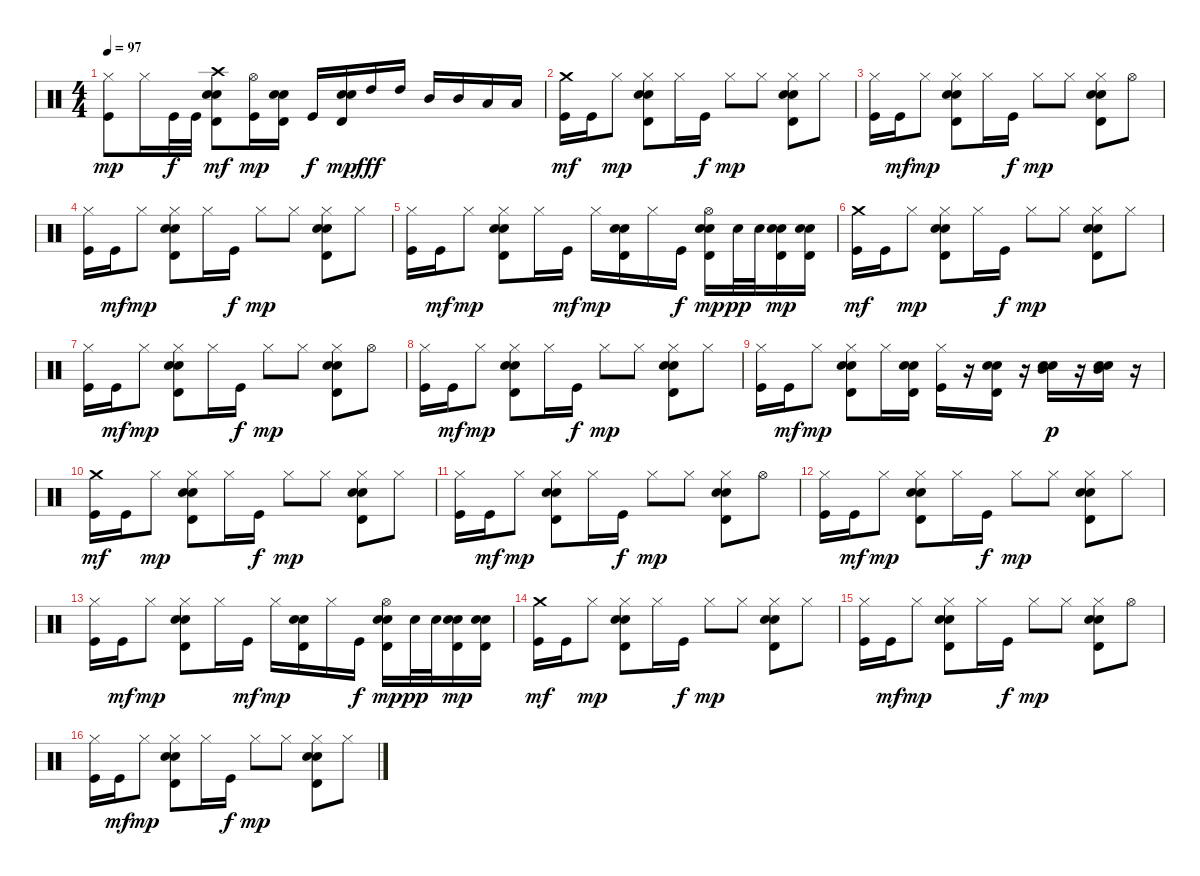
\track "" {instrument percussion}
\staff {score}
\articulation defaults
\ts (4 4)
\tempo 97
\clef neutral
\ks c
("Kick (hit)" "Hi-Hat (closed)").8{dy mp} "Hi-Hat (closed)".16 "Kick (hit)".32{dy f} "Kick (hit)".32 ("Snare (hit) 2" "Electric Snare (hit)" "Timbale high (hit)" "Crash high (hit)").8{dy mf} ("Kick (hit)" "Hi-Hat (open)").16{dy mp} ("Snare (hit) 2" "Electric Snare (hit)" "Timbale high (hit)").16 "Kick (hit)".16{dy f} ("Snare (hit) 2" "Electric Snare (hit)" "Timbale high (hit)").16{dy mp} "High Tom (hit)".16{dy fff} "High Tom (hit)".16 "Mid Tom (hit)".16 "Mid Tom (hit)".16 "Low Tom (hit)".16 "Low Tom (hit)".16 |
\section ("" "")
("Kick (hit)" "Crash medium (hit)").16{dy mf} "Kick (hit)".16 "Hi-Hat (closed)".8{dy mp} ("Snare (hit) 2" "Electric Snare (hit)" "Timbale high (hit)" "Hi-Hat (closed)").8 "Hi-Hat (closed)".16 "Kick (hit)".16{dy f} "Hi-Hat (closed)".8{dy mp} "Hi-Hat (closed)".8 ("Snare (hit) 2" "Electric Snare (hit)" "Timbale high (hit)" "Hi-Hat (closed)").8 "Hi-Hat (closed)".8 |
("Kick (hit)" "Hi-Hat (closed)").16 "Kick (hit)".16{dy mf} "Hi-Hat (closed)".8{dy mp} ("Snare (hit) 2" "Electric Snare (hit)" "Timbale high (hit)" "Hi-Hat (closed)").8 "Hi-Hat (closed)".16 "Kick (hit)".16{dy f} "Hi-Hat (closed)".8{dy mp} "Hi-Hat (closed)".8 ("Snare (hit) 2" "Electric Snare (hit)" "Timbale high (hit)" "Hi-Hat (closed)").8 "Hi-Hat (open)".8 |
("Kick (hit)" "Hi-Hat (closed)").16 "Kick (hit)".16{dy mf} "Hi-Hat (closed)".8{dy mp} ("Snare (hit) 2" "Electric Snare (hit)" "Timbale high (hit)" "Hi-Hat (closed)").8 "Hi-Hat (closed)".16 "Kick (hit)".16{dy f} "Hi-Hat (closed)".8{dy mp} "Hi-Hat (closed)".8 ("Snare (hit) 2" "Electric Snare (hit)" "Timbale high (hit)" "Hi-Hat (closed)").8 "Hi-Hat (closed)".8 |
("Kick (hit)" "Hi-Hat (closed)").16 "Kick (hit)".16{dy mf} "Hi-Hat (closed)".8{dy mp} ("Snare (hit) 2" "Electric Snare (hit)" "Timbale high (hit)" "Hi-Hat (closed)").8 "Hi-Hat (closed)".16 "Kick (hit)".16{dy mf} "Hi-Hat (closed)".16{dy mp} ("Snare (hit) 2" "Electric Snare (hit)" "Timbale high (hit)").16 "Hi-Hat (closed)".16 "Kick (hit)".16{dy f} ("Snare (hit) 2" "Electric Snare (hit)" "Timbale high (hit)" "Hi-Hat (open)").16{dy mp} "Snare (hit) 2".32{dy pp} "Snare (hit) 2".32 ("Snare (hit) 2" "Electric Snare (hit)" "Timbale high (hit)").16{dy mp} ("Snare (hit) 2" "Electric Snare (hit)" "Timbale high (hit)").16 |
\section ("" "")
("Kick (hit)" "Crash medium (hit)").16{dy mf} "Kick (hit)".16 "Hi-Hat (closed)".8{dy mp} ("Snare (hit) 2" "Electric Snare (hit)" "Timbale high (hit)" "Hi-Hat (closed)").8 "Hi-Hat (closed)".16 "Kick (hit)".16{dy f} "Hi-Hat (closed)".8{dy mp} "Hi-Hat (closed)".8 ("Snare (hit) 2" "Electric Snare (hit)" "Timbale high (hit)" "Hi-Hat (closed)").8 "Hi-Hat (closed)".8 |
("Kick (hit)" "Hi-Hat (closed)").16 "Kick (hit)".16{dy mf} "Hi-Hat (closed)".8{dy mp} ("Snare (hit) 2" "Electric Snare (hit)" "Timbale high (hit)" "Hi-Hat (closed)").8 "Hi-Hat (closed)".16 "Kick (hit)".16{dy f} "Hi-Hat (closed)".8{dy mp} "Hi-Hat (closed)".8 ("Snare (hit) 2" "Electric Snare (hit)" "Timbale high (hit)" "Hi-Hat (closed)").8 "Hi-Hat (open)".8 |
("Kick (hit)" "Hi-Hat (closed)").16 "Kick (hit)".16{dy mf} "Hi-Hat (closed)".8{dy mp} ("Snare (hit) 2" "Electric Snare (hit)" "Timbale high (hit)" "Hi-Hat (closed)").8 "Hi-Hat (closed)".16 "Kick (hit)".16{dy f} "Hi-Hat (closed)".8{dy mp} "Hi-Hat (closed)".8 ("Snare (hit) 2" "Electric Snare (hit)" "Timbale high (hit)" "Hi-Hat (closed)").8 "Hi-Hat (closed)".8 |
("Kick (hit)" "Hi-Hat (closed)").16 "Kick (hit)".16{dy mf} "Hi-Hat (closed)".8{dy mp} ("Snare (hit) 2" "Electric Snare (hit)" "Timbale high (hit)" "Hi-Hat (closed)").8 "Hi-Hat (closed)".16 ("Snare (hit) 2" "Electric Snare (hit)" "Timbale high (hit)").16 ("Kick (hit)" "Hi-Hat (closed)").16 r.16 ("Snare (hit) 2" "Electric Snare (hit)" "Timbale high (hit)").16 r.16 ("Mid Tom (hit)" "Snare (hit) 2" "Electric Snare (hit)").16{dy p} r.16 ("Mid Tom (hit)" "Snare (hit) 2" "Electric Snare (hit)").16 r.16 |
\section ("" "")
("Kick (hit)" "Crash medium (hit)").16{dy mf} "Kick (hit)".16 "Hi-Hat (closed)".8{dy mp} ("Snare (hit) 2" "Electric Snare (hit)" "Timbale high (hit)" "Hi-Hat (closed)").8 "Hi-Hat (closed)".16 "Kick (hit)".16{dy f} "Hi-Hat (closed)".8{dy mp} "Hi-Hat (closed)".8 ("Snare (hit) 2" "Electric Snare (hit)" "Timbale high (hit)" "Hi-Hat (closed)").8 "Hi-Hat (closed)".8 |
("Kick (hit)" "Hi-Hat (closed)").16 "Kick (hit)".16{dy mf} "Hi-Hat (closed)".8{dy mp} ("Snare (hit) 2" "Electric Snare (hit)" "Timbale high (hit)" "Hi-Hat (closed)").8 "Hi-Hat (closed)".16 "Kick (hit)".16{dy f} "Hi-Hat (closed)".8{dy mp} "Hi-Hat (closed)".8 ("Snare (hit) 2" "Electric Snare (hit)" "Timbale high (hit)" "Hi-Hat (closed)").8 "Hi-Hat (open)".8 |
("Kick (hit)" "Hi-Hat (closed)").16 "Kick (hit)".16{dy mf} "Hi-Hat (closed)".8{dy mp} ("Snare (hit) 2" "Electric Snare (hit)" "Timbale high (hit)" "Hi-Hat (closed)").8 "Hi-Hat (closed)".16 "Kick (hit)".16{dy f} "Hi-Hat (closed)".8{dy mp} "Hi-Hat (closed)".8 ("Snare (hit) 2" "Electric Snare (hit)" "Timbale high (hit)" "Hi-Hat (closed)").8 "Hi-Hat (closed)".8 |
("Kick (hit)" "Hi-Hat (closed)").16 "Kick (hit)".16{dy mf} "Hi-Hat (closed)".8{dy mp} ("Snare (hit) 2" "Electric Snare (hit)" "Timbale high (hit)" "Hi-Hat (closed)").8 "Hi-Hat (closed)".16 "Kick (hit)".16{dy mf} "Hi-Hat (closed)".16{dy mp} ("Snare (hit) 2" "Electric Snare (hit)" "Timbale high (hit)").16 "Hi-Hat (closed)".16 "Kick (hit)".16{dy f} ("Snare (hit) 2" "Electric Snare (hit)" "Timbale high (hit)" "Hi-Hat (open)").16{dy mp} "Snare (hit) 2".32{dy pp} "Snare (hit) 2".32 ("Snare (hit) 2" "Electric Snare (hit)" "Timbale high (hit)").16{dy mp} ("Snare (hit) 2" "Electric Snare (hit)" "Timbale high (hit)").16 |
\section ("" "")
("Kick (hit)" "Crash medium (hit)").16{dy mf} "Kick (hit)".16 "Hi-Hat (closed)".8{dy mp} ("Snare (hit) 2" "Electric Snare (hit)" "Timbale high (hit)" "Hi-Hat (closed)").8 "Hi-Hat (closed)".16 "Kick (hit)".16{dy f} "Hi-Hat (closed)".8{dy mp} "Hi-Hat (closed)".8 ("Snare (hit) 2" "Electric Snare (hit)" "Timbale high (hit)" "Hi-Hat (closed)").8 "Hi-Hat (closed)".8 |
("Kick (hit)" "Hi-Hat (closed)").16 "Kick (hit)".16{dy mf} "Hi-Hat (closed)".8{dy mp} ("Snare (hit) 2" "Electric Snare (hit)" "Timbale high (hit)" "Hi-Hat (closed)").8 "Hi-Hat (closed)".16 "Kick (hit)".16{dy f} "Hi-Hat (closed)".8{dy mp} "Hi-Hat (closed)".8 ("Snare (hit) 2" "Electric Snare (hit)" "Timbale high (hit)" "Hi-Hat (closed)").8 "Hi-Hat (open)".8 |
("Kick (hit)" "Hi-Hat (closed)").16 "Kick (hit)".16{dy mf} "Hi-Hat (closed)".8{dy mp} ("Snare (hit) 2" "Electric Snare (hit)" "Timbale high (hit)" "Hi-Hat (closed)").8 "Hi-Hat (closed)".16 "Kick (hit)".16{dy f} "Hi-Hat (closed)".8{dy mp} "Hi-Hat (closed)".8 ("Snare (hit) 2" "Electric Snare (hit)" "Timbale high (hit)" "Hi-Hat (closed)").8 "Hi-Hat (closed)".8
